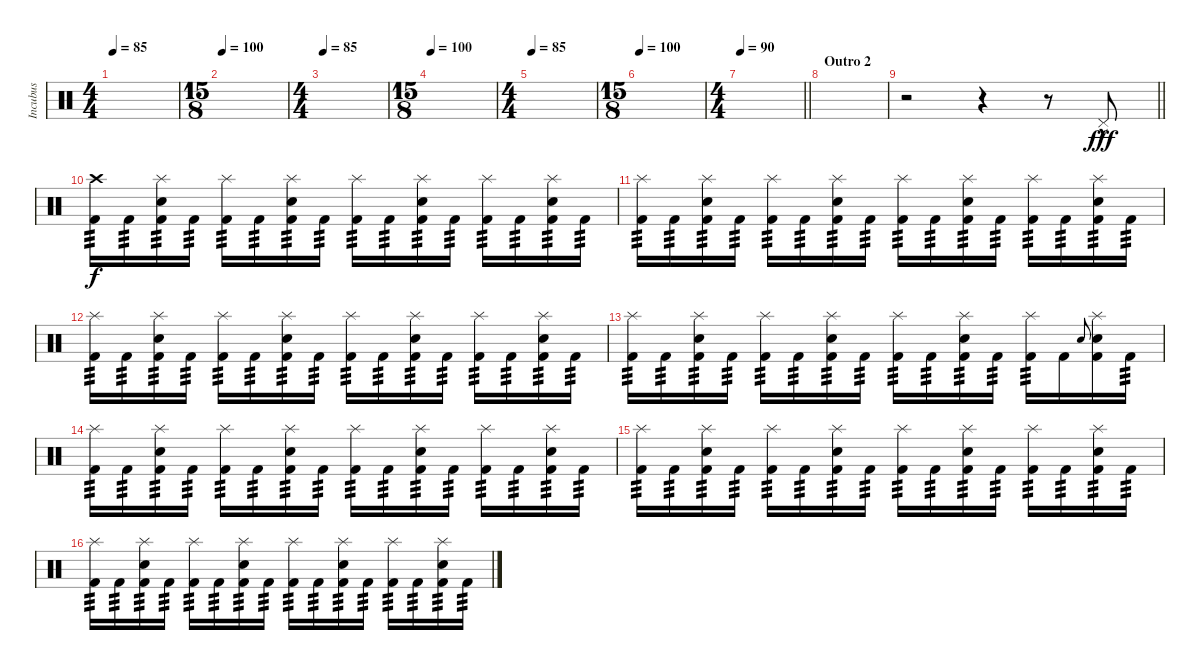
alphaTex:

\track ("Incubus" "Incubus") {instrument percussion}
\staff {score}
\articulation defaults
\ts (4 4)
\tempo 85
\clef neutral
\ks c
|
\ts (15 8)
\tempo 100
|
\ts (4 4)
\tempo 85
|
\ts (15 8)
\tempo 100
|
\ts (4 4)
\tempo 85
|
\ts (15 8)
\tempo 100
|
\ts (4 4)
\tempo 90
\barLineRight lightlight
|
\section ("" "Outro 2")
|
\barLineRight lightlight
r.2 r.4 r.8 "Pedal Hi-Hat (hit)"{hac}.8{dy fff} |
("Crash high (hit)" "Kick (hit) 2").16{tp 3 dy f} "Kick (hit) 2".16{tp 3} ("Splash (hit)" "Snare (hit) 2" "Kick (hit) 2").16{tp 3} "Kick (hit) 2".16{tp 3} ("Splash (hit)" "Kick (hit) 2").16{tp 3} "Kick (hit) 2".16{tp 3} ("Splash (hit)" "Snare (hit) 2" "Kick (hit) 2").16{tp 3} "Kick (hit) 2".16{tp 3} ("Splash (hit)" "Kick (hit) 2").16{tp 3} "Kick (hit) 2".16{tp 3} ("Splash (hit)" "Snare (hit) 2" "Kick (hit) 2").16{tp 3} "Kick (hit) 2".16{tp 3} ("Splash (hit)" "Kick (hit) 2").16{tp 3} "Kick (hit) 2".16{tp 3} ("Splash (hit)" "Snare (hit) 2" "Kick (hit) 2").16{tp 3} "Kick (hit) 2".16{tp 3} |
("Splash (hit)" "Kick (hit) 2").16{tp 3} "Kick (hit) 2".16{tp 3} ("Splash (hit)" "Snare (hit) 2" "Kick (hit) 2").16{tp 3} "Kick (hit) 2".16{tp 3} ("Splash (hit)" "Kick (hit) 2").16{tp 3} "Kick (hit) 2".16{tp 3} ("Splash (hit)" "Snare (hit) 2" "Kick (hit) 2").16{tp 3} "Kick (hit) 2".16{tp 3} ("Splash (hit)" "Kick (hit) 2").16{tp 3} "Kick (hit) 2".16{tp 3} ("Splash (hit)" "Snare (hit) 2" "Kick (hit) 2").16{tp 3} "Kick (hit) 2".16{tp 3} ("Splash (hit)" "Kick (hit) 2").16{tp 3} "Kick (hit) 2".16{tp 3} ("Splash (hit)" "Snare (hit) 2" "Kick (hit) 2").16{tp 3} "Kick (hit) 2".16{tp 3} |
("Splash (hit)" "Kick (hit) 2").16{tp 3} "Kick (hit) 2".16{tp 3} ("Splash (hit)" "Snare (hit) 2" "Kick (hit) 2").16{tp 3} "Kick (hit) 2".16{tp 3} ("Splash (hit)" "Kick (hit) 2").16{tp 3} "Kick (hit) 2".16{tp 3} ("Splash (hit)" "Snare (hit) 2" "Kick (hit) 2").16{tp 3} "Kick (hit) 2".16{tp 3} ("Splash (hit)" "Kick (hit) 2").16{tp 3} "Kick (hit) 2".16{tp 3} ("Splash (hit)" "Snare (hit) 2" "Kick (hit) 2").16{tp 3} "Kick (hit) 2".16{tp 3} ("Splash (hit)" "Kick (hit) 2").16{tp 3} "Kick (hit) 2".16{tp 3} ("Splash (hit)" "Snare (hit) 2" "Kick (hit) 2").16{tp 3} "Kick (hit) 2".16{tp 3} |
("Splash (hit)" "Kick (hit) 2").16{tp 3} "Kick (hit) 2".16{tp 3} ("Splash (hit)" "Snare (hit) 2" "Kick (hit) 2").16{tp 3} "Kick (hit) 2".16{tp 3} ("Splash (hit)" "Kick (hit) 2").16{tp 3} "Kick (hit) 2".16{tp 3} ("Splash (hit)" "Snare (hit) 2" "Kick (hit) 2").16{tp 3} "Kick (hit) 2".16{tp 3} ("Splash (hit)" "Kick (hit) 2").16{tp 3} "Kick (hit) 2".16{tp 3} ("Splash (hit)" "Snare (hit) 2" "Kick (hit) 2").16{tp 3} "Kick (hit) 2".16{tp 3} ("Splash (hit)" "Kick (hit) 2").16{tp 3} "Kick (hit) 2".16 "Snare (hit) 2".8{gr onbeat} ("Splash (hit)" "Snare (hit) 2" "Kick (hit) 2").16 "Kick (hit) 2".16{tp 3} |
("Splash (hit)" "Kick (hit) 2").16{tp 3} "Kick (hit) 2".16{tp 3} ("Splash (hit)" "Snare (hit) 2" "Kick (hit) 2").16{tp 3} "Kick (hit) 2".16{tp 3} ("Splash (hit)" "Kick (hit) 2").16{tp 3} "Kick (hit) 2".16{tp 3} ("Splash (hit)" "Snare (hit) 2" "Kick (hit) 2").16{tp 3} "Kick (hit) 2".16{tp 3} ("Splash (hit)" "Kick (hit) 2").16{tp 3} "Kick (hit) 2".16{tp 3} ("Splash (hit)" "Snare (hit) 2" "Kick (hit) 2").16{tp 3} "Kick (hit) 2".16{tp 3} ("Splash (hit)" "Kick (hit) 2").16{tp 3} "Kick (hit) 2".16{tp 3} ("Splash (hit)" "Snare (hit) 2" "Kick (hit) 2").16{tp 3} "Kick (hit) 2".16{tp 3} |
("Splash (hit)" "Kick (hit) 2").16{tp 3} "Kick (hit) 2".16{tp 3} ("Splash (hit)" "Snare (hit) 2" "Kick (hit) 2").16{tp 3} "Kick (hit) 2".16{tp 3} ("Splash (hit)" "Kick (hit) 2").16{tp 3} "Kick (hit) 2".16{tp 3} ("Splash (hit)" "Snare (hit) 2" "Kick (hit) 2").16{tp 3} "Kick (hit) 2".16{tp 3} ("Splash (hit)" "Kick (hit) 2").16{tp 3} "Kick (hit) 2".16{tp 3} ("Splash (hit)" "Snare (hit) 2" "Kick (hit) 2").16{tp 3} "Kick (hit) 2".16{tp 3} ("Splash (hit)" "Kick (hit) 2").16{tp 3} "Kick (hit) 2".16{tp 3} ("Splash (hit)" "Snare (hit) 2" "Kick (hit) 2").16{tp 3} "Kick (hit) 2".16{tp 3} |
("Splash (hit)" "Kick (hit) 2").16{tp 3} "Kick (hit) 2".16{tp 3} ("Splash (hit)" "Snare (hit) 2" "Kick (hit) 2").16{tp 3} "Kick (hit) 2".16{tp 3} ("Splash (hit)" "Kick (hit) 2").16{tp 3} "Kick (hit) 2".16{tp 3} ("Splash (hit)" "Snare (hit) 2" "Kick (hit) 2").16{tp 3} "Kick (hit) 2".16{tp 3} ("Splash (hit)" "Kick (hit) 2").16{tp 3} "Kick (hit) 2".16{tp 3} ("Splash (hit)" "Snare (hit) 2" "Kick (hit) 2").16{tp 3} "Kick (hit) 2".16{tp 3} ("Splash (hit)" "Kick (hit) 2").16{tp 3} "Kick (hit) 2".16{tp 3} ("Splash (hit)" "Snare (hit) 2" "Kick (hit) 2").16{tp 3} "Kick (hit) 2".16{tp 3}
